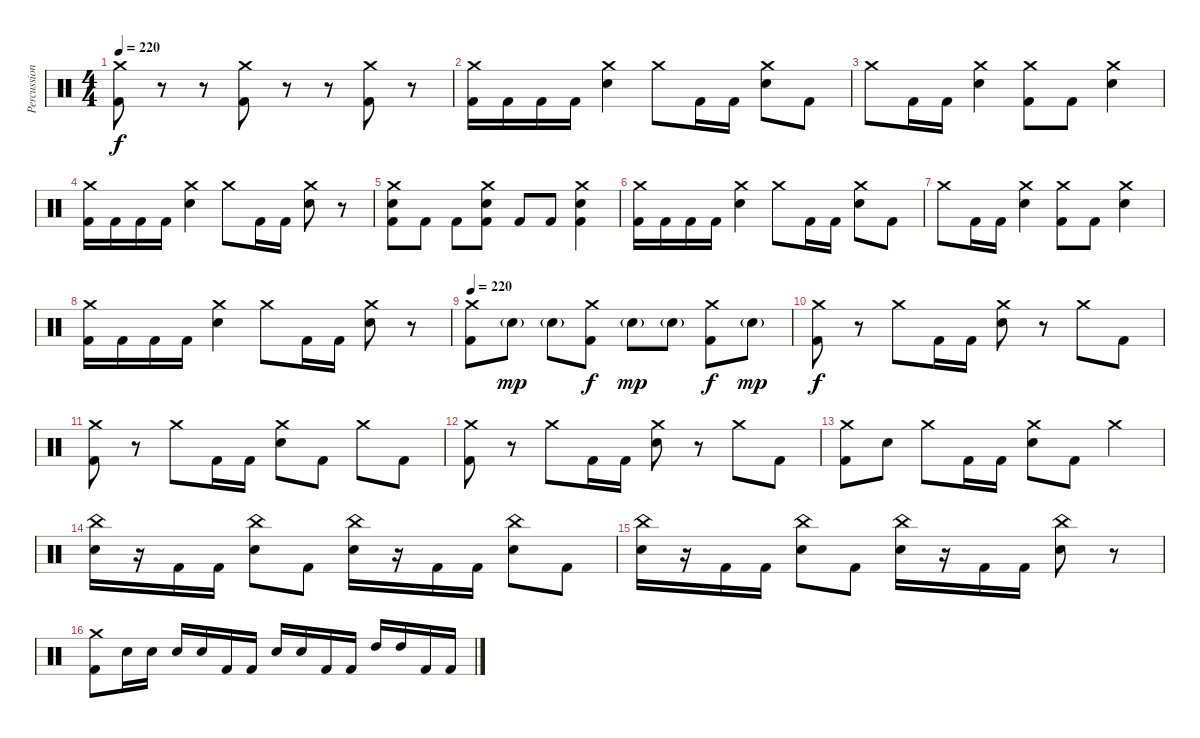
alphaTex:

\track ("Percussion" "Percussion") {solo instrument percussion}
\staff {score}
\articulation defaults
\ts (4 4)
\tempo 220
\clef neutral
\ks c
("Crash medium (hit)" "Kick (hit) 2").8{dy f} r.8 r.8 ("Crash medium (hit)" "Kick (hit) 2").8 r.8 r.8 ("Crash medium (hit)" "Kick (hit) 2").8 r.8 |
("Crash medium (hit)" "Kick (hit) 2").16 "Kick (hit) 2".16 "Kick (hit) 2".16 "Kick (hit) 2".16 ("Crash medium (hit)" "Electric Snare (hit)").4 "Crash medium (hit)".8 "Kick (hit) 2".16 "Kick (hit) 2".16 ("Crash medium (hit)" "Electric Snare (hit)").8 "Kick (hit) 2".8 |
"Crash medium (hit)".8 "Kick (hit) 2".16 "Kick (hit) 2".16 ("Crash medium (hit)" "Electric Snare (hit)").4 ("Crash medium (hit)" "Kick (hit) 2").8 "Kick (hit) 2".8 ("Crash medium (hit)" "Electric Snare (hit)").4 |
("Crash medium (hit)" "Kick (hit) 2").16 "Kick (hit) 2".16 "Kick (hit) 2".16 "Kick (hit) 2".16 ("Crash medium (hit)" "Electric Snare (hit)").4 "Crash medium (hit)".8 "Kick (hit) 2".16 "Kick (hit) 2".16 ("Crash medium (hit)" "Electric Snare (hit)").8 r.8 |
("Crash medium (hit)" "Electric Snare (hit)" "Kick (hit) 2").8 "Kick (hit) 2".8 "Kick (hit) 2".8 ("Crash medium (hit)" "Electric Snare (hit)" "Kick (hit) 2").8 "Kick (hit) 2".8 "Kick (hit) 2".8 ("Crash medium (hit)" "Electric Snare (hit)" "Kick (hit) 2").4 |
("Crash medium (hit)" "Kick (hit) 2").16 "Kick (hit) 2".16 "Kick (hit) 2".16 "Kick (hit) 2".16 ("Crash medium (hit)" "Electric Snare (hit)").4 "Crash medium (hit)".8 "Kick (hit) 2".16 "Kick (hit) 2".16 ("Crash medium (hit)" "Electric Snare (hit)").8 "Kick (hit) 2".8 |
"Crash medium (hit)".8 "Kick (hit) 2".16 "Kick (hit) 2".16 ("Crash medium (hit)" "Electric Snare (hit)").4 ("Crash medium (hit)" "Kick (hit) 2").8 "Kick (hit) 2".8 ("Crash medium (hit)" "Electric Snare (hit)").4 |
("Crash medium (hit)" "Kick (hit) 2").16 "Kick (hit) 2".16 "Kick (hit) 2".16 "Kick (hit) 2".16 ("Crash medium (hit)" "Electric Snare (hit)").4 "Crash medium (hit)".8 "Kick (hit) 2".16 "Kick (hit) 2".16 ("Crash medium (hit)" "Electric Snare (hit)").8 r.8 |
\tempo 220
("Crash medium (hit)" "Kick (hit) 2").8 "Electric Snare (hit)"{g}.8{dy mp} "Electric Snare (hit)"{g}.8 ("Crash medium (hit)" "Kick (hit) 2").8{dy f} "Electric Snare (hit)"{g}.8{dy mp} "Electric Snare (hit)"{g}.8 ("Crash medium (hit)" "Kick (hit) 2").8{dy f} "Electric Snare (hit)"{g}.8{dy mp} |
("Crash medium (hit)" "Kick (hit) 2").8{dy f} r.8 "Crash medium (hit)".8 "Kick (hit) 2".16 "Kick (hit) 2".16 ("Crash medium (hit)" "Electric Snare (hit)").8 r.8 "Crash medium (hit)".8 "Kick (hit) 2".8 |
("Crash medium (hit)" "Kick (hit) 2").8 r.8 "Crash medium (hit)".8 "Kick (hit) 2".16 "Kick (hit) 2".16 ("Crash medium (hit)" "Electric Snare (hit)").8 "Kick (hit) 2".8 "Crash medium (hit)".8 "Kick (hit) 2".8 |
("Crash medium (hit)" "Kick (hit) 2").8 r.8 "Crash medium (hit)".8 "Kick (hit) 2".16 "Kick (hit) 2".16 ("Crash medium (hit)" "Electric Snare (hit)").8 r.8 "Crash medium (hit)".8 "Kick (hit) 2".8 |
("Crash medium (hit)" "Kick (hit) 2").8 "Electric Snare (hit)".8 "Crash medium (hit)".8 "Kick (hit) 2".16 "Kick (hit) 2".16 ("Crash medium (hit)" "Electric Snare (hit)").8 "Kick (hit) 2".8 "Crash medium (hit)".4 |
("China (hit)" "Electric Snare (hit)").16 r.16 "Kick (hit) 2".16 "Kick (hit) 2".16 ("China (hit)" "Electric Snare (hit)").8 "Kick (hit) 2".8 ("China (hit)" "Electric Snare (hit)").16 r.16 "Kick (hit) 2".16 "Kick (hit) 2".16 ("China (hit)" "Electric Snare (hit)").8 "Kick (hit) 2".8 |
("China (hit)" "Electric Snare (hit)").16 r.16 "Kick (hit) 2".16 "Kick (hit) 2".16 ("China (hit)" "Electric Snare (hit)").8 "Kick (hit) 2".8 ("China (hit)" "Electric Snare (hit)").16 r.16 "Kick (hit) 2".16 "Kick (hit) 2".16 ("China (hit)" "Electric Snare (hit)").8 r.8 |
("Crash medium (hit)" "Kick (hit) 2").8 "Electric Snare (hit)".16 "Electric Snare (hit)".16 "Electric Snare (hit)".16 "Electric Snare (hit)".16 "Kick (hit) 2".16 "Kick (hit) 2".16 "Electric Snare (hit)".16 "Electric Snare (hit)".16 "Kick (hit) 2".16 "Kick (hit) 2".16 "High Tom (hit)".16 "High Tom (hit)".16 "Kick (hit) 2".16 "Kick (hit) 2".16
